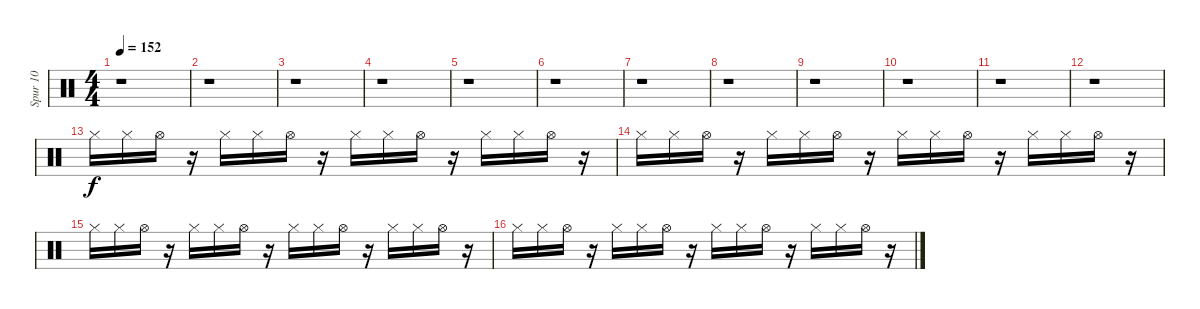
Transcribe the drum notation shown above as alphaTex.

\track ("Spur 10" "Spur 10") {instrument percussion}
\staff {score}
\articulation defaults
\ts (4 4)
\tempo 152
\clef neutral
\ks c
r.1{dy f} |
r.1 |
r.1 |
r.1 |
r.1 |
r.1 |
r.1 |
r.1 |
r.1 |
r.1 |
r.1 |
r.1 |
"Hi-Hat (closed)".16 "Hi-Hat (closed)".16 "Hi-Hat (open)".16 r.16 "Hi-Hat (closed)".16 "Hi-Hat (closed)".16 "Hi-Hat (open)".16 r.16 "Hi-Hat (closed)".16 "Hi-Hat (closed)".16 "Hi-Hat (open)".16 r.16 "Hi-Hat (closed)".16 "Hi-Hat (closed)".16 "Hi-Hat (open)".16 r.16 |
"Hi-Hat (closed)".16 "Hi-Hat (closed)".16 "Hi-Hat (open)".16 r.16 "Hi-Hat (closed)".16 "Hi-Hat (closed)".16 "Hi-Hat (open)".16 r.16 "Hi-Hat (closed)".16 "Hi-Hat (closed)".16 "Hi-Hat (open)".16 r.16 "Hi-Hat (closed)".16 "Hi-Hat (closed)".16 "Hi-Hat (open)".16 r.16 |
"Hi-Hat (closed)".16 "Hi-Hat (closed)".16 "Hi-Hat (open)".16 r.16 "Hi-Hat (closed)".16 "Hi-Hat (closed)".16 "Hi-Hat (open)".16 r.16 "Hi-Hat (closed)".16 "Hi-Hat (closed)".16 "Hi-Hat (open)".16 r.16 "Hi-Hat (closed)".16 "Hi-Hat (closed)".16 "Hi-Hat (open)".16 r.16 |
"Hi-Hat (closed)".16 "Hi-Hat (closed)".16 "Hi-Hat (open)".16 r.16 "Hi-Hat (closed)".16 "Hi-Hat (closed)".16 "Hi-Hat (open)".16 r.16 "Hi-Hat (closed)".16 "Hi-Hat (closed)".16 "Hi-Hat (open)".16 r.16 "Hi-Hat (closed)".16 "Hi-Hat (closed)".16 "Hi-Hat (open)".16 r.16
